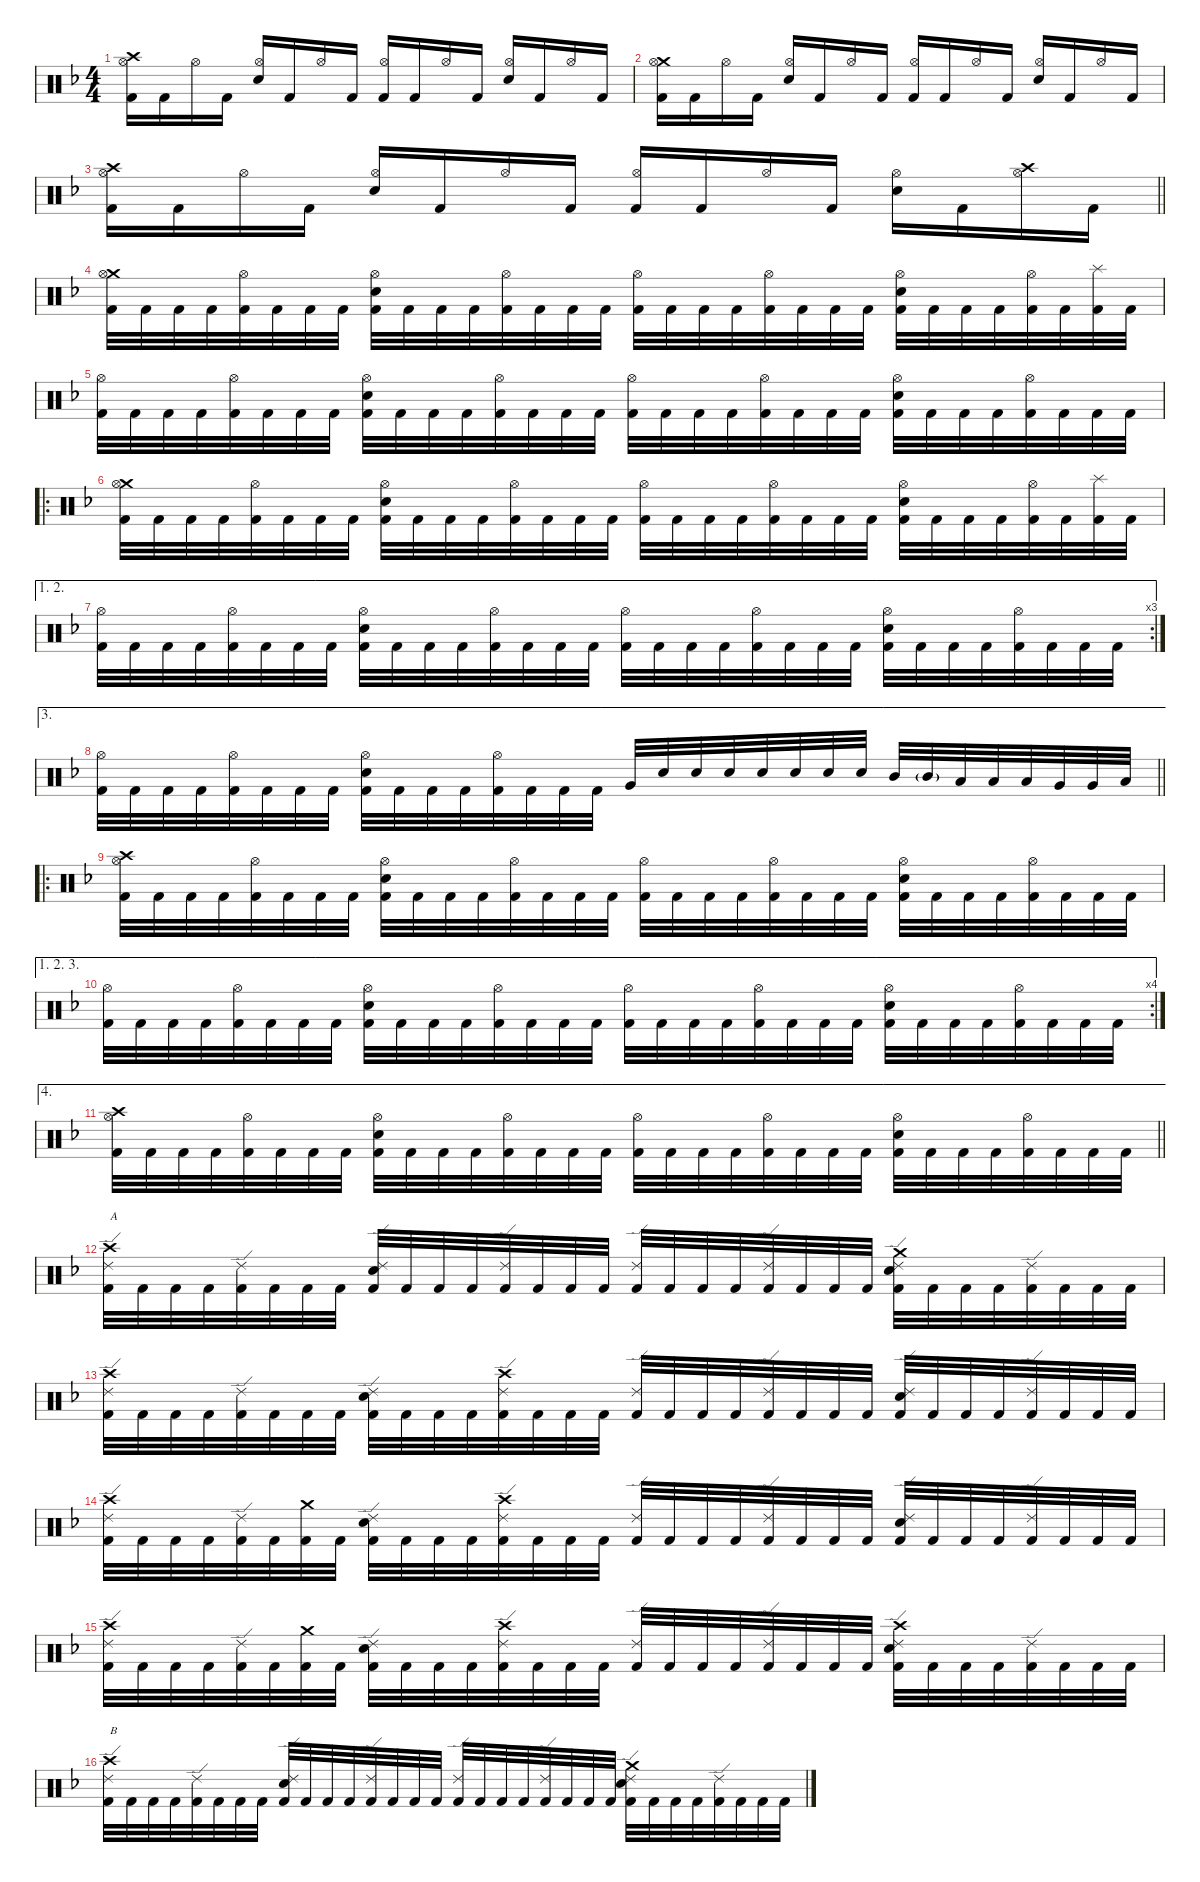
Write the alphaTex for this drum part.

\defaultSystemsLayout 4
\hideDynamics
\bracketExtendMode nobrackets
\singleTrackTrackNamePolicy hidden
\multiTrackTrackNamePolicy hidden
\otherSystemsTrackNameOrientation horizontal
\track ("Martin Lopez - Drums" "drm.") {defaultSystemsLayout 4 instrument percussion}
\staff {score}
\articulation defaults
\ts (4 4)
\tempo (85 hide)
\clef neutral
\ks dminor
("Crash high (hit)"{acc forcenatural} "Hi-Hat (open)"{acc forcenatural} "Kick (hit) 2"{acc forcenatural}).16{dy f beam Down} "Kick (hit) 2"{acc forcenatural}.16{beam Down} "Hi-Hat (open)"{acc forcenatural}.16{beam Down} "Kick (hit) 2"{acc forcenatural}.16{beam Down} ("Hi-Hat (open)"{acc forcenatural} "Snare (hit) 2"{acc forcenatural}).16{beam Up} "Kick (hit) 2"{acc forcenatural}.16{beam Up} "Hi-Hat (open)"{acc forcenatural}.16{beam Up} "Kick (hit) 2"{acc forcenatural}.16{beam Up} ("Hi-Hat (open)"{acc forcenatural} "Kick (hit) 2"{acc forcenatural}).16{beam Up} "Kick (hit) 2"{acc forcenatural}.16{beam Up} "Hi-Hat (open)"{acc forcenatural}.16{beam Up} "Kick (hit) 2"{acc forcenatural}.16{beam Up} ("Hi-Hat (open)"{acc forcenatural} "Snare (hit) 2"{acc forcenatural}).16{beam Up} "Kick (hit) 2"{acc forcenatural}.16{beam Up} "Hi-Hat (open)"{acc forcenatural}.16{beam Up} "Kick (hit) 2"{acc forcenatural}.16{beam Up} |
\tempo (84 hide)
("Crash medium (hit)"{acc forcenatural} "Hi-Hat (open)"{acc forcenatural} "Kick (hit) 2"{acc forcenatural}).16{beam Down} "Kick (hit) 2"{acc forcenatural}.16{beam Down} "Hi-Hat (open)"{acc forcenatural}.16{beam Down} "Kick (hit) 2"{acc forcenatural}.16{beam Down} ("Hi-Hat (open)"{acc forcenatural} "Snare (hit) 2"{acc forcenatural}).16{beam Up} "Kick (hit) 2"{acc forcenatural}.16{beam Up} "Hi-Hat (open)"{acc forcenatural}.16{beam Up} "Kick (hit) 2"{acc forcenatural}.16{beam Up} ("Hi-Hat (open)"{acc forcenatural} "Kick (hit) 2"{acc forcenatural}).16{beam Up} "Kick (hit) 2"{acc forcenatural}.16{beam Up} "Hi-Hat (open)"{acc forcenatural}.16{beam Up} "Kick (hit) 2"{acc forcenatural}.16{beam Up} ("Hi-Hat (open)"{acc forcenatural} "Snare (hit) 2"{acc forcenatural}).16{beam Up} "Kick (hit) 2"{acc forcenatural}.16{beam Up} "Hi-Hat (open)"{acc forcenatural}.16{beam Up} "Kick (hit) 2"{acc forcenatural}.16{beam Up} |
\tempo (85 hide)
\barLineRight lightlight
("Crash high (hit)"{acc forcenatural} "Hi-Hat (open)"{acc forcenatural} "Kick (hit) 2"{acc forcenatural}).16{beam Down} "Kick (hit) 2"{acc forcenatural}.16{beam Down} "Hi-Hat (open)"{acc forcenatural}.16{beam Down} "Kick (hit) 2"{acc forcenatural}.16{beam Down} ("Hi-Hat (open)"{acc forcenatural} "Snare (hit) 2"{acc forcenatural}).16{beam Up} "Kick (hit) 2"{acc forcenatural}.16{beam Up} "Hi-Hat (open)"{acc forcenatural}.16{beam Up} "Kick (hit) 2"{acc forcenatural}.16{beam Up} ("Hi-Hat (open)"{acc forcenatural} "Kick (hit) 2"{acc forcenatural}).16{beam Up} "Kick (hit) 2"{acc forcenatural}.16{beam Up} "Hi-Hat (open)"{acc forcenatural}.16{beam Up} "Kick (hit) 2"{acc forcenatural}.16{beam Up} ("Hi-Hat (open)"{acc forcenatural} "Snare (hit) 2"{acc forcenatural}).16{beam Down} "Kick (hit) 2"{acc forcenatural}.16{beam Down} ("Crash high (hit)"{acc forcenatural} "Hi-Hat (open)"{acc forcenatural}).16{beam Down} "Kick (hit) 2"{acc forcenatural}.16{beam Down} |
\tempo (84 hide)
("Crash medium (hit)"{acc forcenatural} "Hi-Hat (open)"{acc forcenatural} "Kick (hit) 2"{acc forcenatural}).32{beam Down} "Kick (hit) 2"{acc forcenatural}.32{beam Down} "Kick (hit) 2"{acc forcenatural}.32{beam Down} "Kick (hit) 2"{acc forcenatural}.32{beam Down} ("Hi-Hat (open)"{acc forcenatural} "Kick (hit) 2"{acc forcenatural}).32{beam Down} "Kick (hit) 2"{acc forcenatural}.32{beam Down} "Kick (hit) 2"{acc forcenatural}.32{beam Down} "Kick (hit) 2"{acc forcenatural}.32{beam Down} ("Hi-Hat (open)"{acc forcenatural} "Snare (hit) 2"{acc forcenatural} "Kick (hit) 2"{acc forcenatural}).32{beam Down} "Kick (hit) 2"{acc forcenatural}.32{beam Down} "Kick (hit) 2"{acc forcenatural}.32{beam Down} "Kick (hit) 2"{acc forcenatural}.32{beam Down} ("Hi-Hat (open)"{acc forcenatural} "Kick (hit) 2"{acc forcenatural}).32{beam Down} "Kick (hit) 2"{acc forcenatural}.32{beam Down} "Kick (hit) 2"{acc forcenatural}.32{beam Down} "Kick (hit) 2"{acc forcenatural}.32{beam Down} ("Hi-Hat (open)"{acc forcenatural} "Kick (hit) 2"{acc forcenatural}).32{beam Down} "Kick (hit) 2"{acc forcenatural}.32{beam Down} "Kick (hit) 2"{acc forcenatural}.32{beam Down} "Kick (hit) 2"{acc forcenatural}.32{beam Down} ("Hi-Hat (open)"{acc forcenatural} "Kick (hit) 2"{acc forcenatural}).32{beam Down} "Kick (hit) 2"{acc forcenatural}.32{beam Down} "Kick (hit) 2"{acc forcenatural}.32{beam Down} "Kick (hit) 2"{acc forcenatural}.32{beam Down} ("Hi-Hat (open)"{acc forcenatural} "Snare (hit) 2"{acc forcenatural} "Kick (hit) 2"{acc forcenatural}).32{beam Down} "Kick (hit) 2"{acc forcenatural}.32{beam Down} "Kick (hit) 2"{acc forcenatural}.32{beam Down} "Kick (hit) 2"{acc forcenatural}.32{beam Down} ("Hi-Hat (open)"{acc forcenatural} "Kick (hit) 2"{acc forcenatural}).32{beam Down} "Kick (hit) 2"{acc forcenatural}.32{beam Down} ("Splash (hit)"{acc forcenatural} "Kick (hit) 2"{acc forcenatural}).32{beam Down} "Kick (hit) 2"{acc forcenatural}.32{beam Down} |
\tempo (85 0.00625 hide)
("Hi-Hat (open)"{acc forcenatural} "Kick (hit) 2"{acc forcenatural}).32{beam Down} "Kick (hit) 2"{acc forcenatural}.32{beam Down} "Kick (hit) 2"{acc forcenatural}.32{beam Down} "Kick (hit) 2"{acc forcenatural}.32{beam Down} ("Hi-Hat (open)"{acc forcenatural} "Kick (hit) 2"{acc forcenatural}).32{beam Down} "Kick (hit) 2"{acc forcenatural}.32{beam Down} "Kick (hit) 2"{acc forcenatural}.32{beam Down} "Kick (hit) 2"{acc forcenatural}.32{beam Down} ("Hi-Hat (open)"{acc forcenatural} "Snare (hit) 2"{acc forcenatural} "Kick (hit) 2"{acc forcenatural}).32{beam Down} "Kick (hit) 2"{acc forcenatural}.32{beam Down} "Kick (hit) 2"{acc forcenatural}.32{beam Down} "Kick (hit) 2"{acc forcenatural}.32{beam Down} ("Hi-Hat (open)"{acc forcenatural} "Kick (hit) 2"{acc forcenatural}).32{beam Down} "Kick (hit) 2"{acc forcenatural}.32{beam Down} "Kick (hit) 2"{acc forcenatural}.32{beam Down} "Kick (hit) 2"{acc forcenatural}.32{beam Down} ("Hi-Hat (open)"{acc forcenatural} "Kick (hit) 2"{acc forcenatural}).32{beam Down} "Kick (hit) 2"{acc forcenatural}.32{beam Down} "Kick (hit) 2"{acc forcenatural}.32{beam Down} "Kick (hit) 2"{acc forcenatural}.32{beam Down} ("Hi-Hat (open)"{acc forcenatural} "Kick (hit) 2"{acc forcenatural}).32{beam Down} "Kick (hit) 2"{acc forcenatural}.32{beam Down} "Kick (hit) 2"{acc forcenatural}.32{beam Down} "Kick (hit) 2"{acc forcenatural}.32{beam Down} ("Hi-Hat (open)"{acc forcenatural} "Snare (hit) 2"{acc forcenatural} "Kick (hit) 2"{acc forcenatural}).32{beam Down} "Kick (hit) 2"{acc forcenatural}.32{beam Down} "Kick (hit) 2"{acc forcenatural}.32{beam Down} "Kick (hit) 2"{acc forcenatural}.32{beam Down} ("Hi-Hat (open)"{acc forcenatural} "Kick (hit) 2"{acc forcenatural}).32{beam Down} "Kick (hit) 2"{acc forcenatural}.32{beam Down} "Kick (hit) 2"{acc forcenatural}.32{beam Down} "Kick (hit) 2"{acc forcenatural}.32{beam Down} |
\ro
\tempo (84 0.00625 hide)
("Crash medium (hit)"{acc forcenatural} "Hi-Hat (open)"{acc forcenatural} "Kick (hit) 2"{acc forcenatural}).32{beam Down} "Kick (hit) 2"{acc forcenatural}.32{beam Down} "Kick (hit) 2"{acc forcenatural}.32{beam Down} "Kick (hit) 2"{acc forcenatural}.32{beam Down} ("Hi-Hat (open)"{acc forcenatural} "Kick (hit) 2"{acc forcenatural}).32{beam Down} "Kick (hit) 2"{acc forcenatural}.32{beam Down} "Kick (hit) 2"{acc forcenatural}.32{beam Down} "Kick (hit) 2"{acc forcenatural}.32{beam Down} ("Hi-Hat (open)"{acc forcenatural} "Snare (hit) 2"{acc forcenatural} "Kick (hit) 2"{acc forcenatural}).32{beam Down} "Kick (hit) 2"{acc forcenatural}.32{beam Down} "Kick (hit) 2"{acc forcenatural}.32{beam Down} "Kick (hit) 2"{acc forcenatural}.32{beam Down} ("Hi-Hat (open)"{acc forcenatural} "Kick (hit) 2"{acc forcenatural}).32{beam Down} "Kick (hit) 2"{acc forcenatural}.32{beam Down} "Kick (hit) 2"{acc forcenatural}.32{beam Down} "Kick (hit) 2"{acc forcenatural}.32{beam Down} ("Hi-Hat (open)"{acc forcenatural} "Kick (hit) 2"{acc forcenatural}).32{beam Down} "Kick (hit) 2"{acc forcenatural}.32{beam Down} "Kick (hit) 2"{acc forcenatural}.32{beam Down} "Kick (hit) 2"{acc forcenatural}.32{beam Down} ("Hi-Hat (open)"{acc forcenatural} "Kick (hit) 2"{acc forcenatural}).32{beam Down} "Kick (hit) 2"{acc forcenatural}.32{beam Down} "Kick (hit) 2"{acc forcenatural}.32{beam Down} "Kick (hit) 2"{acc forcenatural}.32{beam Down} ("Hi-Hat (open)"{acc forcenatural} "Snare (hit) 2"{acc forcenatural} "Kick (hit) 2"{acc forcenatural}).32{beam Down} "Kick (hit) 2"{acc forcenatural}.32{beam Down} "Kick (hit) 2"{acc forcenatural}.32{beam Down} "Kick (hit) 2"{acc forcenatural}.32{beam Down} ("Hi-Hat (open)"{acc forcenatural} "Kick (hit) 2"{acc forcenatural}).32{beam Down} "Kick (hit) 2"{acc forcenatural}.32{beam Down} ("Splash (hit)"{acc forcenatural} "Kick (hit) 2"{acc forcenatural}).32{beam Down} "Kick (hit) 2"{acc forcenatural}.32{beam Down} |
\ae (1 2)
\rc 3
\tempo (85 hide)
("Hi-Hat (open)"{acc forcenatural} "Kick (hit) 2"{acc forcenatural}).32{beam Down} "Kick (hit) 2"{acc forcenatural}.32{beam Down} "Kick (hit) 2"{acc forcenatural}.32{beam Down} "Kick (hit) 2"{acc forcenatural}.32{beam Down} ("Hi-Hat (open)"{acc forcenatural} "Kick (hit) 2"{acc forcenatural}).32{beam Down} "Kick (hit) 2"{acc forcenatural}.32{beam Down} "Kick (hit) 2"{acc forcenatural}.32{beam Down} "Kick (hit) 2"{acc forcenatural}.32{beam Down} ("Hi-Hat (open)"{acc forcenatural} "Snare (hit) 2"{acc forcenatural} "Kick (hit) 2"{acc forcenatural}).32{beam Down} "Kick (hit) 2"{acc forcenatural}.32{beam Down} "Kick (hit) 2"{acc forcenatural}.32{beam Down} "Kick (hit) 2"{acc forcenatural}.32{beam Down} ("Hi-Hat (open)"{acc forcenatural} "Kick (hit) 2"{acc forcenatural}).32{beam Down} "Kick (hit) 2"{acc forcenatural}.32{beam Down} "Kick (hit) 2"{acc forcenatural}.32{beam Down} "Kick (hit) 2"{acc forcenatural}.32{beam Down} ("Hi-Hat (open)"{acc forcenatural} "Kick (hit) 2"{acc forcenatural}).32{beam Down} "Kick (hit) 2"{acc forcenatural}.32{beam Down} "Kick (hit) 2"{acc forcenatural}.32{beam Down} "Kick (hit) 2"{acc forcenatural}.32{beam Down} ("Hi-Hat (open)"{acc forcenatural} "Kick (hit) 2"{acc forcenatural}).32{beam Down} "Kick (hit) 2"{acc forcenatural}.32{beam Down} "Kick (hit) 2"{acc forcenatural}.32{beam Down} "Kick (hit) 2"{acc forcenatural}.32{beam Down} ("Hi-Hat (open)"{acc forcenatural} "Snare (hit) 2"{acc forcenatural} "Kick (hit) 2"{acc forcenatural}).32{beam Down} "Kick (hit) 2"{acc forcenatural}.32{beam Down} "Kick (hit) 2"{acc forcenatural}.32{beam Down} "Kick (hit) 2"{acc forcenatural}.32{beam Down} ("Hi-Hat (open)"{acc forcenatural} "Kick (hit) 2"{acc forcenatural}).32{beam Down} "Kick (hit) 2"{acc forcenatural}.32{beam Down} "Kick (hit) 2"{acc forcenatural}.32{beam Down} "Kick (hit) 2"{acc forcenatural}.32{beam Down} |
\ae 3
\tempo (84 hide)
\barLineRight lightlight
("Hi-Hat (open)"{acc forcenatural} "Kick (hit) 2"{acc forcenatural}).32{beam Down} "Kick (hit) 2"{acc forcenatural}.32{beam Down} "Kick (hit) 2"{acc forcenatural}.32{beam Down} "Kick (hit) 2"{acc forcenatural}.32{beam Down} ("Hi-Hat (open)"{acc forcenatural} "Kick (hit) 2"{acc forcenatural}).32{beam Down} "Kick (hit) 2"{acc forcenatural}.32{beam Down} "Kick (hit) 2"{acc forcenatural}.32{beam Down} "Kick (hit) 2"{acc forcenatural}.32{beam Down} ("Hi-Hat (open)"{acc forcenatural} "Snare (hit) 2"{acc forcenatural} "Kick (hit) 2"{acc forcenatural}).32{beam Down} "Kick (hit) 2"{acc forcenatural}.32{beam Down} "Kick (hit) 2"{acc forcenatural}.32{beam Down} "Kick (hit) 2"{acc forcenatural}.32{beam Down} ("Hi-Hat (open)"{acc forcenatural} "Kick (hit) 2"{acc forcenatural}).32{beam Down} "Kick (hit) 2"{acc forcenatural}.32{beam Down} "Kick (hit) 2"{acc forcenatural}.32{beam Down} "Kick (hit) 2"{acc forcenatural}.32{beam Down} "Very Low Tom (hit)"{acc forcenatural}.32{beam Up} "Snare (hit) 2"{acc forcenatural}.32{beam Up} "Snare (hit) 2"{acc forcenatural}.32{beam Up} "Snare (hit) 2"{acc forcenatural}.32{beam Up} "Snare (hit) 2"{acc forcenatural}.32{beam Up} "Snare (hit) 2"{acc forcenatural}.32{beam Up} "Snare (hit) 2"{acc forcenatural}.32{beam Up} "Snare (hit) 2"{acc forcenatural}.32{beam Up} "Mid Tom (hit)"{acc forcenatural}.32{beam Up} "Mid Tom (hit)"{g acc forcenatural}.32{dy mf beam Up} "Low Tom (hit)"{acc forcenatural}.32{dy f beam Up} "Low Tom (hit)"{acc forcenatural}.32{beam Up} "Low Tom (hit)"{acc forcenatural}.32{beam Up} "Very Low Tom (hit)"{acc forcenatural}.32{beam Up} "Very Low Tom (hit)"{acc forcenatural}.32{beam Up} "Low Floor Tom (hit)"{acc forcenatural}.32{beam Up} |
\ro
\tempo (85 hide)
("Crash high (hit)"{acc forcenatural} "Hi-Hat (open)"{acc forcenatural} "Kick (hit) 2"{acc forcenatural}).32{beam Down} "Kick (hit) 2"{acc forcenatural}.32{beam Down} "Kick (hit) 2"{acc forcenatural}.32{beam Down} "Kick (hit) 2"{acc forcenatural}.32{beam Down} ("Hi-Hat (open)"{acc forcenatural} "Kick (hit) 2"{acc forcenatural}).32{beam Down} "Kick (hit) 2"{acc forcenatural}.32{beam Down} "Kick (hit) 2"{acc forcenatural}.32{beam Down} "Kick (hit) 2"{acc forcenatural}.32{beam Down} ("Hi-Hat (open)"{acc forcenatural} "Snare (hit) 2"{acc forcenatural} "Kick (hit) 2"{acc forcenatural}).32{beam Down} "Kick (hit) 2"{acc forcenatural}.32{beam Down} "Kick (hit) 2"{acc forcenatural}.32{beam Down} "Kick (hit) 2"{acc forcenatural}.32{beam Down} ("Hi-Hat (open)"{acc forcenatural} "Kick (hit) 2"{acc forcenatural}).32{beam Down} "Kick (hit) 2"{acc forcenatural}.32{beam Down} "Kick (hit) 2"{acc forcenatural}.32{beam Down} "Kick (hit) 2"{acc forcenatural}.32{beam Down} ("Hi-Hat (open)"{acc forcenatural} "Kick (hit) 2"{acc forcenatural}).32{beam Down} "Kick (hit) 2"{acc forcenatural}.32{beam Down} "Kick (hit) 2"{acc forcenatural}.32{beam Down} "Kick (hit) 2"{acc forcenatural}.32{beam Down} ("Hi-Hat (open)"{acc forcenatural} "Kick (hit) 2"{acc forcenatural}).32{beam Down} "Kick (hit) 2"{acc forcenatural}.32{beam Down} "Kick (hit) 2"{acc forcenatural}.32{beam Down} "Kick (hit) 2"{acc forcenatural}.32{beam Down} ("Hi-Hat (open)"{acc forcenatural} "Snare (hit) 2"{acc forcenatural} "Kick (hit) 2"{acc forcenatural}).32{beam Down} "Kick (hit) 2"{acc forcenatural}.32{beam Down} "Kick (hit) 2"{acc forcenatural}.32{beam Down} "Kick (hit) 2"{acc forcenatural}.32{beam Down} ("Hi-Hat (open)"{acc forcenatural} "Kick (hit) 2"{acc forcenatural}).32{beam Down} "Kick (hit) 2"{acc forcenatural}.32{beam Down} "Kick (hit) 2"{acc forcenatural}.32{beam Down} "Kick (hit) 2"{acc forcenatural}.32{beam Down} |
\ae (1 2 3)
\rc 4
\tempo (84 0.00625 hide)
("Hi-Hat (open)"{acc forcenatural} "Kick (hit) 2"{acc forcenatural}).32{beam Down} "Kick (hit) 2"{acc forcenatural}.32{beam Down} "Kick (hit) 2"{acc forcenatural}.32{beam Down} "Kick (hit) 2"{acc forcenatural}.32{beam Down} ("Hi-Hat (open)"{acc forcenatural} "Kick (hit) 2"{acc forcenatural}).32{beam Down} "Kick (hit) 2"{acc forcenatural}.32{beam Down} "Kick (hit) 2"{acc forcenatural}.32{beam Down} "Kick (hit) 2"{acc forcenatural}.32{beam Down} ("Hi-Hat (open)"{acc forcenatural} "Snare (hit) 2"{acc forcenatural} "Kick (hit) 2"{acc forcenatural}).32{beam Down} "Kick (hit) 2"{acc forcenatural}.32{beam Down} "Kick (hit) 2"{acc forcenatural}.32{beam Down} "Kick (hit) 2"{acc forcenatural}.32{beam Down} ("Hi-Hat (open)"{acc forcenatural} "Kick (hit) 2"{acc forcenatural}).32{beam Down} "Kick (hit) 2"{acc forcenatural}.32{beam Down} "Kick (hit) 2"{acc forcenatural}.32{beam Down} "Kick (hit) 2"{acc forcenatural}.32{beam Down} ("Hi-Hat (open)"{acc forcenatural} "Kick (hit) 2"{acc forcenatural}).32{beam Down} "Kick (hit) 2"{acc forcenatural}.32{beam Down} "Kick (hit) 2"{acc forcenatural}.32{beam Down} "Kick (hit) 2"{acc forcenatural}.32{beam Down} ("Hi-Hat (open)"{acc forcenatural} "Kick (hit) 2"{acc forcenatural}).32{beam Down} "Kick (hit) 2"{acc forcenatural}.32{beam Down} "Kick (hit) 2"{acc forcenatural}.32{beam Down} "Kick (hit) 2"{acc forcenatural}.32{beam Down} ("Hi-Hat (open)"{acc forcenatural} "Snare (hit) 2"{acc forcenatural} "Kick (hit) 2"{acc forcenatural}).32{beam Down} "Kick (hit) 2"{acc forcenatural}.32{beam Down} "Kick (hit) 2"{acc forcenatural}.32{beam Down} "Kick (hit) 2"{acc forcenatural}.32{beam Down} ("Hi-Hat (open)"{acc forcenatural} "Kick (hit) 2"{acc forcenatural}).32{beam Down} "Kick (hit) 2"{acc forcenatural}.32{beam Down} "Kick (hit) 2"{acc forcenatural}.32{beam Down} "Kick (hit) 2"{acc forcenatural}.32{beam Down} |
\ae 4
\tempo (85 hide)
\barLineRight lightlight
("Crash high (hit)"{acc forcenatural} "Hi-Hat (open)"{acc forcenatural} "Kick (hit) 2"{acc forcenatural}).32{beam Down} "Kick (hit) 2"{acc forcenatural}.32{beam Down} "Kick (hit) 2"{acc forcenatural}.32{beam Down} "Kick (hit) 2"{acc forcenatural}.32{beam Down} ("Hi-Hat (open)"{acc forcenatural} "Kick (hit) 2"{acc forcenatural}).32{beam Down} "Kick (hit) 2"{acc forcenatural}.32{beam Down} "Kick (hit) 2"{acc forcenatural}.32{beam Down} "Kick (hit) 2"{acc forcenatural}.32{beam Down} ("Hi-Hat (open)"{acc forcenatural} "Snare (hit) 2"{acc forcenatural} "Kick (hit) 2"{acc forcenatural}).32{beam Down} "Kick (hit) 2"{acc forcenatural}.32{beam Down} "Kick (hit) 2"{acc forcenatural}.32{beam Down} "Kick (hit) 2"{acc forcenatural}.32{beam Down} ("Hi-Hat (open)"{acc forcenatural} "Kick (hit) 2"{acc forcenatural}).32{beam Down} "Kick (hit) 2"{acc forcenatural}.32{beam Down} "Kick (hit) 2"{acc forcenatural}.32{beam Down} "Kick (hit) 2"{acc forcenatural}.32{beam Down} ("Hi-Hat (open)"{acc forcenatural} "Kick (hit) 2"{acc forcenatural}).32{beam Down} "Kick (hit) 2"{acc forcenatural}.32{beam Down} "Kick (hit) 2"{acc forcenatural}.32{beam Down} "Kick (hit) 2"{acc forcenatural}.32{beam Down} ("Hi-Hat (open)"{acc forcenatural} "Kick (hit) 2"{acc forcenatural}).32{beam Down} "Kick (hit) 2"{acc forcenatural}.32{beam Down} "Kick (hit) 2"{acc forcenatural}.32{beam Down} "Kick (hit) 2"{acc forcenatural}.32{beam Down} ("Hi-Hat (open)"{acc forcenatural} "Snare (hit) 2"{acc forcenatural} "Kick (hit) 2"{acc forcenatural}).32{beam Down} "Kick (hit) 2"{acc forcenatural}.32{beam Down} "Kick (hit) 2"{acc forcenatural}.32{beam Down} "Kick (hit) 2"{acc forcenatural}.32{beam Down} ("Hi-Hat (open)"{acc forcenatural} "Kick (hit) 2"{acc forcenatural}).32{beam Down} "Kick (hit) 2"{acc forcenatural}.32{beam Down} "Kick (hit) 2"{acc forcenatural}.32{beam Down} "Kick (hit) 2"{acc forcenatural}.32{beam Down} |
\tempo (84 hide)
("Crash high (hit)"{acc forcenatural} "Ride (edge) 2"{acc forcenatural} "Kick (hit) 2"{acc forcenatural}).32{txt "A" beam Down} "Kick (hit) 2"{acc forcenatural}.32{beam Down} "Kick (hit) 2"{acc forcenatural}.32{beam Down} "Kick (hit) 2"{acc forcenatural}.32{beam Down} ("Ride (edge) 2"{acc forcenatural} "Kick (hit) 2"{acc forcenatural}).32{beam Down} "Kick (hit) 2"{acc forcenatural}.32{beam Down} "Kick (hit) 2"{acc forcenatural}.32{beam Down} "Kick (hit) 2"{acc forcenatural}.32{beam Down} ("Ride (edge) 2"{acc forcenatural} "Snare (hit) 2"{acc forcenatural} "Kick (hit) 2"{acc forcenatural}).32{beam Up} "Kick (hit) 2"{acc forcenatural}.32{beam Up} "Kick (hit) 2"{acc forcenatural}.32{beam Up} "Kick (hit) 2"{acc forcenatural}.32{beam Up} ("Ride (edge) 2"{acc forcenatural} "Kick (hit) 2"{acc forcenatural}).32{beam Up} "Kick (hit) 2"{acc forcenatural}.32{beam Up} "Kick (hit) 2"{acc forcenatural}.32{beam Up} "Kick (hit) 2"{acc forcenatural}.32{beam Up} ("Ride (edge) 2"{acc forcenatural} "Kick (hit) 2"{acc forcenatural}).32{beam Up} "Kick (hit) 2"{acc forcenatural}.32{beam Up} "Kick (hit) 2"{acc forcenatural}.32{beam Up} "Kick (hit) 2"{acc forcenatural}.32{beam Up} ("Ride (edge) 2"{acc forcenatural} "Kick (hit) 2"{acc forcenatural}).32{beam Up} "Kick (hit) 2"{acc forcenatural}.32{beam Up} "Kick (hit) 2"{acc forcenatural}.32{beam Up} "Kick (hit) 2"{acc forcenatural}.32{beam Up} ("Crash medium (hit)"{acc forcenatural} "Ride (edge) 2"{acc forcenatural} "Snare (hit) 2"{acc forcenatural} "Kick (hit) 2"{acc forcenatural}).32{beam Down} "Kick (hit) 2"{acc forcenatural}.32{beam Down} "Kick (hit) 2"{acc forcenatural}.32{beam Down} "Kick (hit) 2"{acc forcenatural}.32{beam Down} ("Ride (edge) 2"{acc forcenatural} "Kick (hit) 2"{acc forcenatural}).32{beam Down} "Kick (hit) 2"{acc forcenatural}.32{beam Down} "Kick (hit) 2"{acc forcenatural}.32{beam Down} "Kick (hit) 2"{acc forcenatural}.32{beam Down} |
\tempo (85 0.00625 hide)
("Crash high (hit)"{acc forcenatural} "Ride (edge) 2"{acc forcenatural} "Kick (hit) 2"{acc forcenatural}).32{beam Down} "Kick (hit) 2"{acc forcenatural}.32{beam Down} "Kick (hit) 2"{acc forcenatural}.32{beam Down} "Kick (hit) 2"{acc forcenatural}.32{beam Down} ("Ride (edge) 2"{acc forcenatural} "Kick (hit) 2"{acc forcenatural}).32{beam Down} "Kick (hit) 2"{acc forcenatural}.32{beam Down} "Kick (hit) 2"{acc forcenatural}.32{beam Down} "Kick (hit) 2"{acc forcenatural}.32{beam Down} ("Ride (edge) 2"{acc forcenatural} "Snare (hit) 2"{acc forcenatural} "Kick (hit) 2"{acc forcenatural}).32{beam Down} "Kick (hit) 2"{acc forcenatural}.32{beam Down} "Kick (hit) 2"{acc forcenatural}.32{beam Down} "Kick (hit) 2"{acc forcenatural}.32{beam Down} ("Crash high (hit)"{acc forcenatural} "Ride (edge) 2"{acc forcenatural} "Kick (hit) 2"{acc forcenatural}).32{beam Down} "Kick (hit) 2"{acc forcenatural}.32{beam Down} "Kick (hit) 2"{acc forcenatural}.32{beam Down} "Kick (hit) 2"{acc forcenatural}.32{beam Down} ("Ride (edge) 2"{acc forcenatural} "Kick (hit) 2"{acc forcenatural}).32{beam Up} "Kick (hit) 2"{acc forcenatural}.32{beam Up} "Kick (hit) 2"{acc forcenatural}.32{beam Up} "Kick (hit) 2"{acc forcenatural}.32{beam Up} ("Ride (edge) 2"{acc forcenatural} "Kick (hit) 2"{acc forcenatural}).32{beam Up} "Kick (hit) 2"{acc forcenatural}.32{beam Up} "Kick (hit) 2"{acc forcenatural}.32{beam Up} "Kick (hit) 2"{acc forcenatural}.32{beam Up} ("Ride (edge) 2"{acc forcenatural} "Snare (hit) 2"{acc forcenatural} "Kick (hit) 2"{acc forcenatural}).32{beam Up} "Kick (hit) 2"{acc forcenatural}.32{beam Up} "Kick (hit) 2"{acc forcenatural}.32{beam Up} "Kick (hit) 2"{acc forcenatural}.32{beam Up} ("Ride (edge) 2"{acc forcenatural} "Kick (hit) 2"{acc forcenatural}).32{beam Up} "Kick (hit) 2"{acc forcenatural}.32{beam Up} "Kick (hit) 2"{acc forcenatural}.32{beam Up} "Kick (hit) 2"{acc forcenatural}.32{beam Up} |
\tempo (84 hide)
("Crash high (hit)"{acc forcenatural} "Ride (edge) 2"{acc forcenatural} "Kick (hit) 2"{acc forcenatural}).32{beam Down} "Kick (hit) 2"{acc forcenatural}.32{beam Down} "Kick (hit) 2"{acc forcenatural}.32{beam Down} "Kick (hit) 2"{acc forcenatural}.32{beam Down} ("Ride (edge) 2"{acc forcenatural} "Kick (hit) 2"{acc forcenatural}).32{beam Down} "Kick (hit) 2"{acc forcenatural}.32{beam Down} ("Crash medium (hit)"{acc forcenatural} "Kick (hit) 2"{acc forcenatural}).32{beam Down} "Kick (hit) 2"{acc forcenatural}.32{beam Down} ("Ride (edge) 2"{acc forcenatural} "Snare (hit) 2"{acc forcenatural} "Kick (hit) 2"{acc forcenatural}).32{beam Down} "Kick (hit) 2"{acc forcenatural}.32{beam Down} "Kick (hit) 2"{acc forcenatural}.32{beam Down} "Kick (hit) 2"{acc forcenatural}.32{beam Down} ("Crash high (hit)"{acc forcenatural} "Ride (edge) 2"{acc forcenatural} "Kick (hit) 2"{acc forcenatural}).32{beam Down} "Kick (hit) 2"{acc forcenatural}.32{beam Down} "Kick (hit) 2"{acc forcenatural}.32{beam Down} "Kick (hit) 2"{acc forcenatural}.32{beam Down} ("Ride (edge) 2"{acc forcenatural} "Kick (hit) 2"{acc forcenatural}).32{beam Up} "Kick (hit) 2"{acc forcenatural}.32{beam Up} "Kick (hit) 2"{acc forcenatural}.32{beam Up} "Kick (hit) 2"{acc forcenatural}.32{beam Up} ("Ride (edge) 2"{acc forcenatural} "Kick (hit) 2"{acc forcenatural}).32{beam Up} "Kick (hit) 2"{acc forcenatural}.32{beam Up} "Kick (hit) 2"{acc forcenatural}.32{beam Up} "Kick (hit) 2"{acc forcenatural}.32{beam Up} ("Ride (edge) 2"{acc forcenatural} "Snare (hit) 2"{acc forcenatural} "Kick (hit) 2"{acc forcenatural}).32{beam Up} "Kick (hit) 2"{acc forcenatural}.32{beam Up} "Kick (hit) 2"{acc forcenatural}.32{beam Up} "Kick (hit) 2"{acc forcenatural}.32{beam Up} ("Ride (edge) 2"{acc forcenatural} "Kick (hit) 2"{acc forcenatural}).32{beam Up} "Kick (hit) 2"{acc forcenatural}.32{beam Up} "Kick (hit) 2"{acc forcenatural}.32{beam Up} "Kick (hit) 2"{acc forcenatural}.32{beam Up} |
\tempo (85 hide)
("Crash high (hit)"{acc forcenatural} "Ride (edge) 2"{acc forcenatural} "Kick (hit) 2"{acc forcenatural}).32{beam Down} "Kick (hit) 2"{acc forcenatural}.32{beam Down} "Kick (hit) 2"{acc forcenatural}.32{beam Down} "Kick (hit) 2"{acc forcenatural}.32{beam Down} ("Ride (edge) 2"{acc forcenatural} "Kick (hit) 2"{acc forcenatural}).32{beam Down} "Kick (hit) 2"{acc forcenatural}.32{beam Down} ("Crash medium (hit)"{acc forcenatural} "Kick (hit) 2"{acc forcenatural}).32{beam Down} "Kick (hit) 2"{acc forcenatural}.32{beam Down} ("Ride (edge) 2"{acc forcenatural} "Snare (hit) 2"{acc forcenatural} "Kick (hit) 2"{acc forcenatural}).32{beam Down} "Kick (hit) 2"{acc forcenatural}.32{beam Down} "Kick (hit) 2"{acc forcenatural}.32{beam Down} "Kick (hit) 2"{acc forcenatural}.32{beam Down} ("Crash high (hit)"{acc forcenatural} "Ride (edge) 2"{acc forcenatural} "Kick (hit) 2"{acc forcenatural}).32{beam Down} "Kick (hit) 2"{acc forcenatural}.32{beam Down} "Kick (hit) 2"{acc forcenatural}.32{beam Down} "Kick (hit) 2"{acc forcenatural}.32{beam Down} ("Ride (edge) 2"{acc forcenatural} "Kick (hit) 2"{acc forcenatural}).32{beam Up} "Kick (hit) 2"{acc forcenatural}.32{beam Up} "Kick (hit) 2"{acc forcenatural}.32{beam Up} "Kick (hit) 2"{acc forcenatural}.32{beam Up} ("Ride (edge) 2"{acc forcenatural} "Kick (hit) 2"{acc forcenatural}).32{beam Up} "Kick (hit) 2"{acc forcenatural}.32{beam Up} "Kick (hit) 2"{acc forcenatural}.32{beam Up} "Kick (hit) 2"{acc forcenatural}.32{beam Up} ("Crash high (hit)"{acc forcenatural} "Ride (edge) 2"{acc forcenatural} "Snare (hit) 2"{acc forcenatural} "Kick (hit) 2"{acc forcenatural}).32{beam Down} "Kick (hit) 2"{acc forcenatural}.32{beam Down} "Kick (hit) 2"{acc forcenatural}.32{beam Down} "Kick (hit) 2"{acc forcenatural}.32{beam Down} ("Ride (edge) 2"{acc forcenatural} "Kick (hit) 2"{acc forcenatural}).32{beam Down} "Kick (hit) 2"{acc forcenatural}.32{beam Down} "Kick (hit) 2"{acc forcenatural}.32{beam Down} "Kick (hit) 2"{acc forcenatural}.32{beam Down} |
\tempo (84 0.00625 hide)
("Crash high (hit)"{acc forcenatural} "Ride (edge) 2"{acc forcenatural} "Kick (hit) 2"{acc forcenatural}).32{txt "B" beam Down} "Kick (hit) 2"{acc forcenatural}.32{beam Down} "Kick (hit) 2"{acc forcenatural}.32{beam Down} "Kick (hit) 2"{acc forcenatural}.32{beam Down} ("Ride (edge) 2"{acc forcenatural} "Kick (hit) 2"{acc forcenatural}).32{beam Down} "Kick (hit) 2"{acc forcenatural}.32{beam Down} "Kick (hit) 2"{acc forcenatural}.32{beam Down} "Kick (hit) 2"{acc forcenatural}.32{beam Down} ("Ride (edge) 2"{acc forcenatural} "Snare (hit) 2"{acc forcenatural} "Kick (hit) 2"{acc forcenatural}).32{beam Up} "Kick (hit) 2"{acc forcenatural}.32{beam Up} "Kick (hit) 2"{acc forcenatural}.32{beam Up} "Kick (hit) 2"{acc forcenatural}.32{beam Up} ("Ride (edge) 2"{acc forcenatural} "Kick (hit) 2"{acc forcenatural}).32{beam Up} "Kick (hit) 2"{acc forcenatural}.32{beam Up} "Kick (hit) 2"{acc forcenatural}.32{beam Up} "Kick (hit) 2"{acc forcenatural}.32{beam Up} ("Ride (edge) 2"{acc forcenatural} "Kick (hit) 2"{acc forcenatural}).32{beam Up} "Kick (hit) 2"{acc forcenatural}.32{beam Up} "Kick (hit) 2"{acc forcenatural}.32{beam Up} "Kick (hit) 2"{acc forcenatural}.32{beam Up} ("Ride (edge) 2"{acc forcenatural} "Kick (hit) 2"{acc forcenatural}).32{beam Up} "Kick (hit) 2"{acc forcenatural}.32{beam Up} "Kick (hit) 2"{acc forcenatural}.32{beam Up} "Kick (hit) 2"{acc forcenatural}.32{beam Up} ("Crash medium (hit)"{acc forcenatural} "Ride (edge) 2"{acc forcenatural} "Snare (hit) 2"{acc forcenatural} "Kick (hit) 2"{acc forcenatural}).32{beam Down} "Kick (hit) 2"{acc forcenatural}.32{beam Down} "Kick (hit) 2"{acc forcenatural}.32{beam Down} "Kick (hit) 2"{acc forcenatural}.32{beam Down} ("Ride (edge) 2"{acc forcenatural} "Kick (hit) 2"{acc forcenatural}).32{beam Down} "Kick (hit) 2"{acc forcenatural}.32{beam Down} "Kick (hit) 2"{acc forcenatural}.32{beam Down} "Kick (hit) 2"{acc forcenatural}.32{beam Down}
